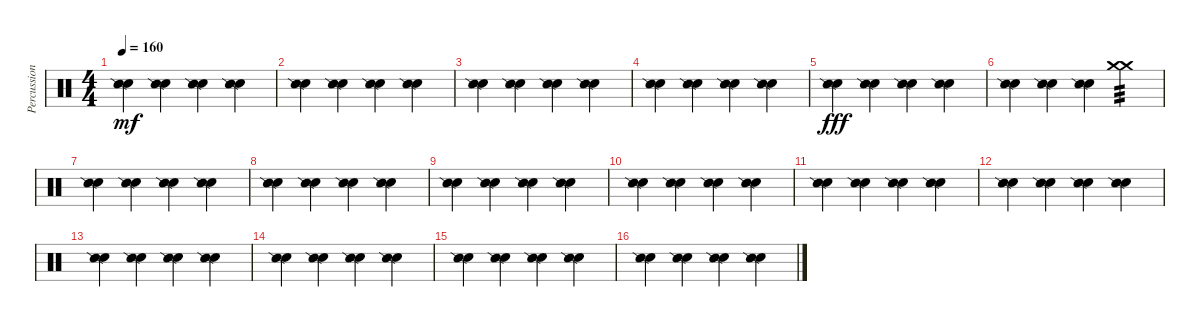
\track ("Percussion 2" "Percussion") {instrument percussion}
\staff {score}
\articulation defaults
\ts (4 4)
\tempo 160
\clef neutral
\ks c
("Hand Clap (hit)" "Snare (side stick) 2").4{dy mf} ("Hand Clap (hit)" "Snare (side stick) 2").4 ("Hand Clap (hit)" "Snare (side stick) 2").4 ("Hand Clap (hit)" "Snare (side stick) 2").4 |
("Hand Clap (hit)" "Snare (side stick) 2").4 ("Hand Clap (hit)" "Snare (side stick) 2").4 ("Hand Clap (hit)" "Snare (side stick) 2").4 ("Hand Clap (hit)" "Snare (side stick) 2").4 |
("Hand Clap (hit)" "Snare (side stick) 2").4 ("Hand Clap (hit)" "Snare (side stick) 2").4 ("Hand Clap (hit)" "Snare (side stick) 2").4 ("Hand Clap (hit)" "Snare (side stick) 2").4 |
("Hand Clap (hit)" "Snare (side stick) 2").4 ("Hand Clap (hit)" "Snare (side stick) 2").4 ("Hand Clap (hit)" "Snare (side stick) 2").4 ("Hand Clap (hit)" "Snare (side stick) 2").4 |
("Hand Clap (hit)" "Snare (side stick) 2").4{dy fff} ("Hand Clap (hit)" "Snare (side stick) 2").4 ("Hand Clap (hit)" "Snare (side stick) 2").4 ("Hand Clap (hit)" "Snare (side stick) 2").4 |
("Hand Clap (hit)" "Snare (side stick) 2").4 ("Hand Clap (hit)" "Snare (side stick) 2").4 ("Hand Clap (hit)" "Snare (side stick) 2").4 ("Crash medium (hit)" "Crash medium (hit)").4{tp 3} |
("Hand Clap (hit)" "Snare (side stick) 2").4 ("Hand Clap (hit)" "Snare (side stick) 2").4 ("Hand Clap (hit)" "Snare (side stick) 2").4 ("Hand Clap (hit)" "Snare (side stick) 2").4 |
("Hand Clap (hit)" "Snare (side stick) 2").4 ("Hand Clap (hit)" "Snare (side stick) 2").4 ("Hand Clap (hit)" "Snare (side stick) 2").4 ("Hand Clap (hit)" "Snare (side stick) 2").4 |
("Hand Clap (hit)" "Snare (side stick) 2").4 ("Hand Clap (hit)" "Snare (side stick) 2").4 ("Hand Clap (hit)" "Snare (side stick) 2").4 ("Hand Clap (hit)" "Snare (side stick) 2").4 |
("Hand Clap (hit)" "Snare (side stick) 2").4 ("Hand Clap (hit)" "Snare (side stick) 2").4 ("Hand Clap (hit)" "Snare (side stick) 2").4 ("Hand Clap (hit)" "Snare (side stick) 2").4 |
("Hand Clap (hit)" "Snare (side stick) 2").4 ("Hand Clap (hit)" "Snare (side stick) 2").4 ("Hand Clap (hit)" "Snare (side stick) 2").4 ("Hand Clap (hit)" "Snare (side stick) 2").4 |
("Hand Clap (hit)" "Snare (side stick) 2").4 ("Hand Clap (hit)" "Snare (side stick) 2").4 ("Hand Clap (hit)" "Snare (side stick) 2").4 ("Hand Clap (hit)" "Snare (side stick) 2").4 |
("Hand Clap (hit)" "Snare (side stick) 2").4 ("Hand Clap (hit)" "Snare (side stick) 2").4 ("Hand Clap (hit)" "Snare (side stick) 2").4 ("Hand Clap (hit)" "Snare (side stick) 2").4 |
("Hand Clap (hit)" "Snare (side stick) 2").4 ("Hand Clap (hit)" "Snare (side stick) 2").4 ("Hand Clap (hit)" "Snare (side stick) 2").4 ("Hand Clap (hit)" "Snare (side stick) 2").4 |
("Hand Clap (hit)" "Snare (side stick) 2").4 ("Hand Clap (hit)" "Snare (side stick) 2").4 ("Hand Clap (hit)" "Snare (side stick) 2").4 ("Hand Clap (hit)" "Snare (side stick) 2").4 |
("Hand Clap (hit)" "Snare (side stick) 2").4 ("Hand Clap (hit)" "Snare (side stick) 2").4 ("Hand Clap (hit)" "Snare (side stick) 2").4 ("Hand Clap (hit)" "Snare (side stick) 2").4
